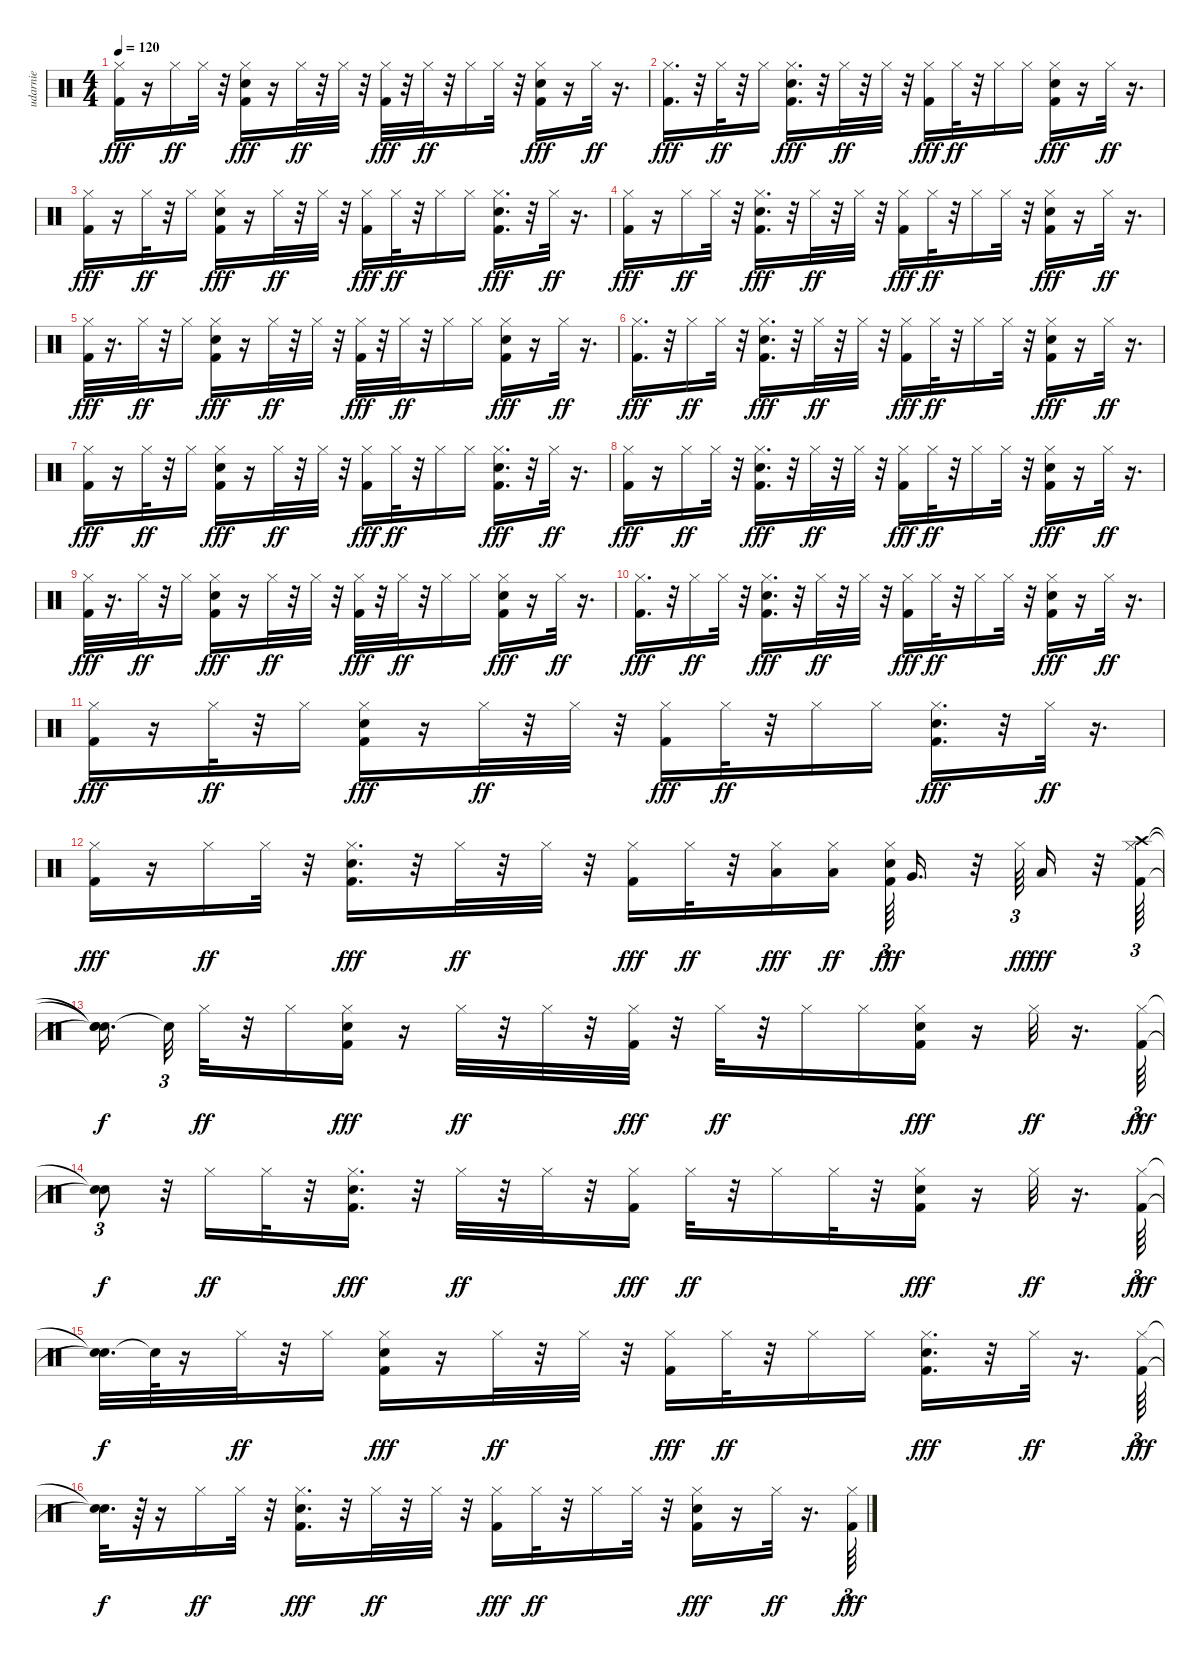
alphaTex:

\track ("udarnie" "udarnie") {instrument percussion}
\staff {score}
\articulation defaults
\ts (4 4)
\tempo 120
\clef neutral
\ks c
("Hi-Hat (closed)" "Kick (hit) 2").16{dy fff} r.16 "Hi-Hat (closed)".16{dy ff} "Hi-Hat (closed)".32 r.32 ("Hi-Hat (closed)" "Electric Snare (hit)" "Kick (hit) 2").16{dy fff} r.16 "Hi-Hat (closed)".32{dy ff} r.32 "Hi-Hat (closed)".32 r.32 ("Hi-Hat (closed)" "Kick (hit) 2").32{dy fff} r.32 "Hi-Hat (closed)".32{dy ff} r.32 "Hi-Hat (closed)".16 "Hi-Hat (closed)".32 r.32 ("Hi-Hat (closed)" "Electric Snare (hit)" "Kick (hit) 2").16{dy fff} r.16 "Hi-Hat (closed)".32{dy ff} r.16{d} |
("Hi-Hat (closed)" "Kick (hit) 2").16{d dy fff} r.32 "Hi-Hat (closed)".32{dy ff} r.32 "Hi-Hat (closed)".16 ("Hi-Hat (closed)" "Electric Snare (hit)" "Kick (hit) 2").16{d dy fff} r.32 "Hi-Hat (closed)".32{dy ff} r.32 "Hi-Hat (closed)".32 r.32 ("Hi-Hat (closed)" "Kick (hit) 2").16{dy fff} "Hi-Hat (closed)".32{dy ff} r.32 "Hi-Hat (closed)".16 "Hi-Hat (closed)".16 ("Hi-Hat (closed)" "Electric Snare (hit)" "Kick (hit) 2").16{dy fff} r.16 "Hi-Hat (closed)".32{dy ff} r.16{d} |
("Hi-Hat (closed)" "Kick (hit) 2").16{dy fff} r.16 "Hi-Hat (closed)".32{dy ff} r.32 "Hi-Hat (closed)".16 ("Hi-Hat (closed)" "Electric Snare (hit)" "Kick (hit) 2").16{dy fff} r.16 "Hi-Hat (closed)".32{dy ff} r.32 "Hi-Hat (closed)".32 r.32 ("Hi-Hat (closed)" "Kick (hit) 2").16{dy fff} "Hi-Hat (closed)".32{dy ff} r.32 "Hi-Hat (closed)".16 "Hi-Hat (closed)".16 ("Hi-Hat (closed)" "Electric Snare (hit)" "Kick (hit) 2").16{d dy fff} r.32 "Hi-Hat (closed)".32{dy ff} r.16{d} |
("Hi-Hat (closed)" "Kick (hit) 2").16{dy fff} r.16 "Hi-Hat (closed)".16{dy ff} "Hi-Hat (closed)".32 r.32 ("Hi-Hat (closed)" "Electric Snare (hit)" "Kick (hit) 2").16{d dy fff} r.32 "Hi-Hat (closed)".32{dy ff} r.32 "Hi-Hat (closed)".32 r.32 ("Hi-Hat (closed)" "Kick (hit) 2").16{dy fff} "Hi-Hat (closed)".32{dy ff} r.32 "Hi-Hat (closed)".16 "Hi-Hat (closed)".32 r.32 ("Hi-Hat (closed)" "Electric Snare (hit)" "Kick (hit) 2").16{dy fff} r.16 "Hi-Hat (closed)".32{dy ff} r.16{d} |
("Hi-Hat (closed)" "Kick (hit) 2").32{dy fff} r.16{d} "Hi-Hat (closed)".32{dy ff} r.32 "Hi-Hat (closed)".16 ("Hi-Hat (closed)" "Electric Snare (hit)" "Kick (hit) 2").16{dy fff} r.16 "Hi-Hat (closed)".32{dy ff} r.32 "Hi-Hat (closed)".32 r.32 ("Hi-Hat (closed)" "Kick (hit) 2").32{dy fff} r.32 "Hi-Hat (closed)".32{dy ff} r.32 "Hi-Hat (closed)".16 "Hi-Hat (closed)".16 ("Hi-Hat (closed)" "Electric Snare (hit)" "Kick (hit) 2").16{dy fff} r.16 "Hi-Hat (closed)".32{dy ff} r.16{d} |
("Hi-Hat (closed)" "Kick (hit) 2").16{d dy fff} r.32 "Hi-Hat (closed)".16{dy ff} "Hi-Hat (closed)".32 r.32 ("Hi-Hat (closed)" "Electric Snare (hit)" "Kick (hit) 2").16{d dy fff} r.32 "Hi-Hat (closed)".32{dy ff} r.32 "Hi-Hat (closed)".32 r.32 ("Hi-Hat (closed)" "Kick (hit) 2").16{dy fff} "Hi-Hat (closed)".32{dy ff} r.32 "Hi-Hat (closed)".16 "Hi-Hat (closed)".32 r.32 ("Hi-Hat (closed)" "Electric Snare (hit)" "Kick (hit) 2").16{dy fff} r.16 "Hi-Hat (closed)".32{dy ff} r.16{d} |
("Hi-Hat (closed)" "Kick (hit) 2").16{dy fff} r.16 "Hi-Hat (closed)".32{dy ff} r.32 "Hi-Hat (closed)".16 ("Hi-Hat (closed)" "Electric Snare (hit)" "Kick (hit) 2").16{dy fff} r.16 "Hi-Hat (closed)".32{dy ff} r.32 "Hi-Hat (closed)".32 r.32 ("Hi-Hat (closed)" "Kick (hit) 2").16{dy fff} "Hi-Hat (closed)".32{dy ff} r.32 "Hi-Hat (closed)".16 "Hi-Hat (closed)".16 ("Hi-Hat (closed)" "Electric Snare (hit)" "Kick (hit) 2").16{d dy fff} r.32 "Hi-Hat (closed)".32{dy ff} r.16{d} |
("Hi-Hat (closed)" "Kick (hit) 2").16{dy fff} r.16 "Hi-Hat (closed)".16{dy ff} "Hi-Hat (closed)".32 r.32 ("Hi-Hat (closed)" "Electric Snare (hit)" "Kick (hit) 2").16{d dy fff} r.32 "Hi-Hat (closed)".32{dy ff} r.32 "Hi-Hat (closed)".32 r.32 ("Hi-Hat (closed)" "Kick (hit) 2").16{dy fff} "Hi-Hat (closed)".32{dy ff} r.32 "Hi-Hat (closed)".16 "Hi-Hat (closed)".32 r.32 ("Hi-Hat (closed)" "Electric Snare (hit)" "Kick (hit) 2").16{dy fff} r.16 "Hi-Hat (closed)".32{dy ff} r.16{d} |
("Hi-Hat (closed)" "Kick (hit) 2").32{dy fff} r.16{d} "Hi-Hat (closed)".32{dy ff} r.32 "Hi-Hat (closed)".16 ("Hi-Hat (closed)" "Electric Snare (hit)" "Kick (hit) 2").16{dy fff} r.16 "Hi-Hat (closed)".32{dy ff} r.32 "Hi-Hat (closed)".32 r.32 ("Hi-Hat (closed)" "Kick (hit) 2").32{dy fff} r.32 "Hi-Hat (closed)".32{dy ff} r.32 "Hi-Hat (closed)".16 "Hi-Hat (closed)".16 ("Hi-Hat (closed)" "Electric Snare (hit)" "Kick (hit) 2").16{dy fff} r.16 "Hi-Hat (closed)".32{dy ff} r.16{d} |
("Hi-Hat (closed)" "Kick (hit) 2").16{d dy fff} r.32 "Hi-Hat (closed)".16{dy ff} "Hi-Hat (closed)".32 r.32 ("Hi-Hat (closed)" "Electric Snare (hit)" "Kick (hit) 2").16{d dy fff} r.32 "Hi-Hat (closed)".32{dy ff} r.32 "Hi-Hat (closed)".32 r.32 ("Hi-Hat (closed)" "Kick (hit) 2").16{dy fff} "Hi-Hat (closed)".32{dy ff} r.32 "Hi-Hat (closed)".16 "Hi-Hat (closed)".32 r.32 ("Hi-Hat (closed)" "Electric Snare (hit)" "Kick (hit) 2").16{dy fff} r.16 "Hi-Hat (closed)".32{dy ff} r.16{d} |
("Hi-Hat (closed)" "Kick (hit) 2").16{dy fff} r.16 "Hi-Hat (closed)".32{dy ff} r.32 "Hi-Hat (closed)".16 ("Hi-Hat (closed)" "Electric Snare (hit)" "Kick (hit) 2").16{dy fff} r.16 "Hi-Hat (closed)".32{dy ff} r.32 "Hi-Hat (closed)".32 r.32 ("Hi-Hat (closed)" "Kick (hit) 2").16{dy fff} "Hi-Hat (closed)".32{dy ff} r.32 "Hi-Hat (closed)".16 "Hi-Hat (closed)".16 ("Hi-Hat (closed)" "Electric Snare (hit)" "Kick (hit) 2").16{d dy fff} r.32 "Hi-Hat (closed)".32{dy ff} r.16{d} |
("Hi-Hat (closed)" "Kick (hit) 2").16{dy fff} r.16 "Hi-Hat (closed)".16{dy ff} "Hi-Hat (closed)".32 r.32 ("Hi-Hat (closed)" "Electric Snare (hit)" "Kick (hit) 2").16{d dy fff} r.32 "Hi-Hat (closed)".32{dy ff} r.32 "Hi-Hat (closed)".32 r.32 ("Hi-Hat (closed)" "Kick (hit) 2").16{dy fff} "Hi-Hat (closed)".32{dy ff} r.32 ("Hi-Hat (closed)" "Low Tom (hit)").16{dy fff} ("Low Tom (hit)" "Hi-Hat (closed)").16{dy ff} ("Hi-Hat (closed)" "Electric Snare (hit)" "Kick (hit) 2").64{tu (3 2) dy fff} "Very Low Tom (hit)".16{d} r.32 "Hi-Hat (closed)".64{tu (3 2) dy ff} "Low Floor Tom (hit)".16{dy fff} r.32 ("Crash high (hit)" "Hi-Hat (closed)" "Kick (hit) 2").64{tu (3 2)} |
("Snare (hit)"{t} "Snare (hit)"{t} "Snare (hit)"{t}).16{d dy f beam splitsecondary} "Snare (hit)"{t}.32{tu (3 2)} "Hi-Hat (closed)".32{dy ff} r.32 "Hi-Hat (closed)".16 ("Hi-Hat (closed)" "Electric Snare (hit)" "Kick (hit) 2").16{dy fff} r.16 "Hi-Hat (closed)".32{dy ff} r.32 "Hi-Hat (closed)".32 r.32 ("Hi-Hat (closed)" "Kick (hit) 2").32{dy fff} r.32 "Hi-Hat (closed)".32{dy ff} r.32 "Hi-Hat (closed)".16 "Hi-Hat (closed)".16 ("Hi-Hat (closed)" "Electric Snare (hit)" "Kick (hit) 2").16{dy fff} r.16 "Hi-Hat (closed)".32{dy ff} r.16{d} ("Hi-Hat (closed)" "Kick (hit) 2").64{tu (3 2) dy fff} |
("Snare (hit)"{t} "Snare (hit)"{t}).8{tu (3 2) dy f} r.32 "Hi-Hat (closed)".16{dy ff} "Hi-Hat (closed)".32 r.32 ("Hi-Hat (closed)" "Electric Snare (hit)" "Kick (hit) 2").16{d dy fff} r.32 "Hi-Hat (closed)".32{dy ff} r.32 "Hi-Hat (closed)".32 r.32 ("Hi-Hat (closed)" "Kick (hit) 2").16{dy fff} "Hi-Hat (closed)".32{dy ff} r.32 "Hi-Hat (closed)".16 "Hi-Hat (closed)".32 r.32 ("Hi-Hat (closed)" "Electric Snare (hit)" "Kick (hit) 2").16{dy fff} r.16 "Hi-Hat (closed)".32{dy ff} r.16{d} ("Hi-Hat (closed)" "Kick (hit) 2").64{tu (3 2) dy fff} |
("Snare (hit)"{t} "Snare (hit)"{t}).32{d dy f} "Snare (hit)"{t}.64 r.16 "Hi-Hat (closed)".32{dy ff} r.32 "Hi-Hat (closed)".16 ("Hi-Hat (closed)" "Electric Snare (hit)" "Kick (hit) 2").16{dy fff} r.16 "Hi-Hat (closed)".32{dy ff} r.32 "Hi-Hat (closed)".32 r.32 ("Hi-Hat (closed)" "Kick (hit) 2").16{dy fff} "Hi-Hat (closed)".32{dy ff} r.32 "Hi-Hat (closed)".16 "Hi-Hat (closed)".16 ("Hi-Hat (closed)" "Electric Snare (hit)" "Kick (hit) 2").16{d dy fff} r.32 "Hi-Hat (closed)".32{dy ff} r.16{d} ("Hi-Hat (closed)" "Kick (hit) 2").64{tu (3 2) dy fff} |
("Snare (hit)"{t} "Snare (hit)"{t}).32{d dy f} r.64 r.16 "Hi-Hat (closed)".16{dy ff} "Hi-Hat (closed)".32 r.32 ("Hi-Hat (closed)" "Electric Snare (hit)" "Kick (hit) 2").16{d dy fff} r.32 "Hi-Hat (closed)".32{dy ff} r.32 "Hi-Hat (closed)".32 r.32 ("Hi-Hat (closed)" "Kick (hit) 2").16{dy fff} "Hi-Hat (closed)".32{dy ff} r.32 "Hi-Hat (closed)".16 "Hi-Hat (closed)".32 r.32 ("Hi-Hat (closed)" "Electric Snare (hit)" "Kick (hit) 2").16{dy fff} r.16 "Hi-Hat (closed)".32{dy ff} r.16{d} ("Hi-Hat (closed)" "Kick (hit) 2").64{tu (3 2) dy fff}
